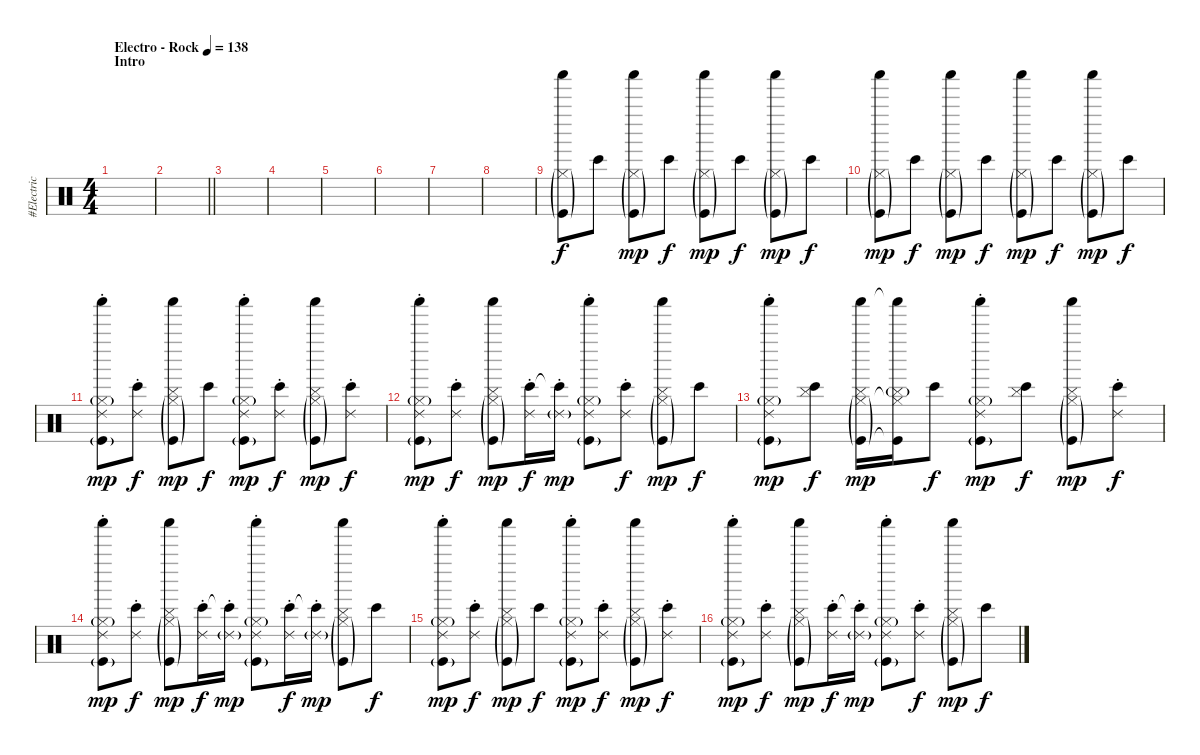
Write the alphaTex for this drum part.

\track ("#Electric Drums" "#Electric ") {instrument percussion}
\staff {score}
\articulation defaults
\ts (4 4)
\section ("" "Intro")
\tempo (138 "Electro - Rock")
\clef neutral
\ks c
|
\barLineRight lightlight
|
|
|
|
|
|
|
("Kick (hit)"{g} "Shaker (hit)" "Hi-Hat (closed)"{g}).8 "Bongo High (hit)".8{dy f} ("Kick (hit)"{g} "Shaker (hit)" "Hi-Hat (closed)"{g}).8{dy mp} "Bongo High (hit)".8{dy f} ("Kick (hit)"{g} "Shaker (hit)" "Hi-Hat (closed)"{g}).8{dy mp} "Bongo High (hit)".8{dy f} ("Kick (hit)"{g} "Shaker (hit)" "Hi-Hat (closed)"{g}).8{dy mp} "Bongo High (hit)".8{dy f} |
("Kick (hit)"{g} "Shaker (hit)" "Hi-Hat (closed)"{g}).8{dy mp} "Bongo High (hit)".8{dy f} ("Kick (hit)"{g} "Shaker (hit)" "Hi-Hat (closed)"{g}).8{dy mp} "Bongo High (hit)".8{dy f} ("Kick (hit)"{g} "Shaker (hit)" "Hi-Hat (closed)"{g}).8{dy mp} "Bongo High (hit)".8{dy f} ("Kick (hit)"{g} "Shaker (hit)" "Hi-Hat (closed)"{g}).8{dy mp} "Bongo High (hit)".8{dy f} |
("Ride (choke) 2" "Kick (hit)"{g} "Shaker (hit)" "Hi-Hat (closed)"{g}).8{dy mp} ("Ride (choke) 2" "Bongo High (hit)").8{dy f} ("Cymbal (hit)" "Kick (hit)"{g} "Shaker (hit)" "Hi-Hat (closed)"{g}).8{dy mp} "Bongo High (hit)".8{dy f} ("Ride (choke) 2" "Kick (hit)"{g} "Shaker (hit)" "Hi-Hat (closed)"{g}).8{dy mp} ("Ride (choke) 2" "Bongo High (hit)").8{dy f} ("Cymbal (hit)" "Kick (hit)"{g} "Shaker (hit)" "Hi-Hat (closed)"{g}).8{dy mp} ("Ride (choke) 2" "Bongo High (hit)").8{dy f} |
("Ride (choke) 2" "Kick (hit)"{g} "Shaker (hit)" "Hi-Hat (closed)"{g}).8{dy mp} ("Ride (choke) 2" "Bongo High (hit)").8{dy f} ("Cymbal (hit)" "Kick (hit)"{g} "Shaker (hit)" "Hi-Hat (closed)"{g}).8{dy mp} ("Ride (choke) 2" "Bongo High (hit)").16{dy f} ("Ride (choke) 2"{g} "Bongo High (hit)"{t}).16{dy mp} ("Ride (choke) 2" "Kick (hit)"{g} "Shaker (hit)" "Hi-Hat (closed)"{g}).8 ("Ride (choke) 2" "Bongo High (hit)").8{dy f} ("Cymbal (hit)" "Kick (hit)"{g} "Shaker (hit)" "Hi-Hat (closed)"{g}).8{dy mp} "Bongo High (hit)".8{dy f} |
("Ride (choke) 2" "Kick (hit)"{g} "Shaker (hit)" "Hi-Hat (closed)"{g}).8{dy mp} ("Cymbal (hit)" "Bongo High (hit)").8{dy f} ("Cymbal (hit)" "Kick (hit)"{g} "Shaker (hit)" "Hi-Hat (closed)"{g}).16{dy mp} ("Cymbal (hit)"{g} "Kick (hit)"{t} "Shaker (hit)"{t} "Hi-Hat (closed)"{t}).16 "Bongo High (hit)".8{dy f} ("Ride (choke) 2" "Kick (hit)"{g} "Shaker (hit)" "Hi-Hat (closed)"{g}).8{dy mp} ("Cymbal (hit)" "Bongo High (hit)").8{dy f} ("Cymbal (hit)" "Kick (hit)"{g} "Shaker (hit)" "Hi-Hat (closed)"{g}).8{dy mp} ("Ride (choke) 2" "Bongo High (hit)").8{dy f} |
("Ride (choke) 2" "Kick (hit)"{g} "Shaker (hit)" "Hi-Hat (closed)"{g}).8{dy mp} ("Ride (choke) 2" "Bongo High (hit)").8{dy f} ("Cymbal (hit)" "Kick (hit)"{g} "Shaker (hit)" "Hi-Hat (closed)"{g}).8{dy mp} ("Ride (choke) 2" "Bongo High (hit)").16{dy f} ("Ride (choke) 2"{g} "Bongo High (hit)"{t}).16{dy mp} ("Ride (choke) 2" "Kick (hit)"{g} "Shaker (hit)" "Hi-Hat (closed)"{g}).8 ("Ride (choke) 2" "Bongo High (hit)").16{dy f} ("Ride (choke) 2"{g} "Bongo High (hit)"{t}).16{dy mp} ("Cymbal (hit)" "Kick (hit)"{g} "Shaker (hit)" "Hi-Hat (closed)"{g}).8 "Bongo High (hit)".8{dy f} |
("Ride (choke) 2" "Kick (hit)"{g} "Shaker (hit)" "Hi-Hat (closed)"{g}).8{dy mp} ("Ride (choke) 2" "Bongo High (hit)").8{dy f} ("Cymbal (hit)" "Kick (hit)"{g} "Shaker (hit)" "Hi-Hat (closed)"{g}).8{dy mp} "Bongo High (hit)".8{dy f} ("Ride (choke) 2" "Kick (hit)"{g} "Shaker (hit)" "Hi-Hat (closed)"{g}).8{dy mp} ("Ride (choke) 2" "Bongo High (hit)").8{dy f} ("Cymbal (hit)" "Kick (hit)"{g} "Shaker (hit)" "Hi-Hat (closed)"{g}).8{dy mp} ("Ride (choke) 2" "Bongo High (hit)").8{dy f} |
("Ride (choke) 2" "Kick (hit)"{g} "Shaker (hit)" "Hi-Hat (closed)"{g}).8{dy mp} ("Ride (choke) 2" "Bongo High (hit)").8{dy f} ("Cymbal (hit)" "Kick (hit)"{g} "Shaker (hit)" "Hi-Hat (closed)"{g}).8{dy mp} ("Ride (choke) 2" "Bongo High (hit)").16{dy f} ("Ride (choke) 2"{g} "Bongo High (hit)"{t}).16{dy mp} ("Ride (choke) 2" "Kick (hit)"{g} "Shaker (hit)" "Hi-Hat (closed)"{g}).8 ("Ride (choke) 2" "Bongo High (hit)").8{dy f} ("Cymbal (hit)" "Kick (hit)"{g} "Shaker (hit)" "Hi-Hat (closed)"{g}).8{dy mp} "Bongo High (hit)".8{dy f}
